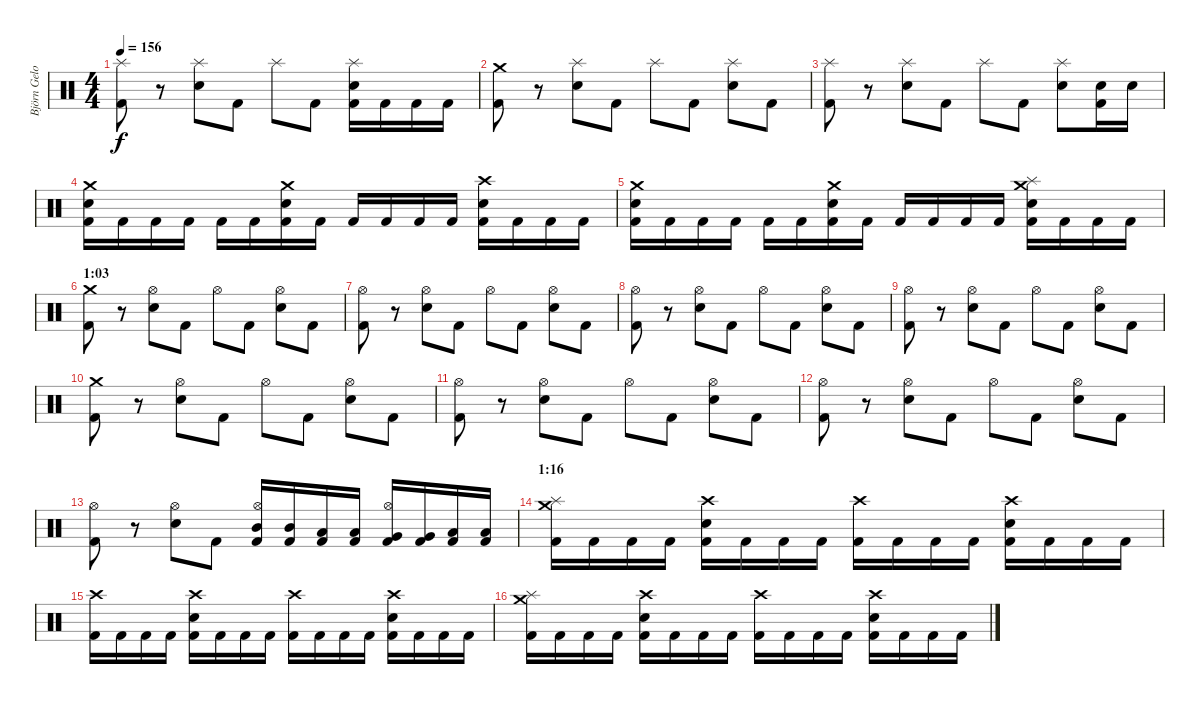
\track ("Björn Gelotte" "Björn Gelo") {instrument percussion}
\staff {score}
\articulation defaults
\ts (4 4)
\tempo 156
\clef neutral
\ks c
("Splash (hit)" "Kick (hit) 2").8{dy f} r.8 ("Splash (hit)" "Electric Snare (hit)").8 "Kick (hit) 2".8 "Splash (hit)".8 "Kick (hit) 2".8 ("Splash (hit)" "Electric Snare (hit)" "Kick (hit) 2").16 "Kick (hit) 2".16 "Kick (hit) 2".16 "Kick (hit) 2".16 |
("Crash medium (hit)" "Kick (hit) 2").8 r.8 ("Splash (hit)" "Electric Snare (hit)").8 "Kick (hit) 2".8 "Splash (hit)".8 "Kick (hit) 2".8 ("Splash (hit)" "Electric Snare (hit)").8 "Kick (hit) 2".8 |
("Splash (hit)" "Kick (hit) 2").8 r.8 ("Splash (hit)" "Electric Snare (hit)").8 "Kick (hit) 2".8 "Splash (hit)".8 "Kick (hit) 2".8 ("Splash (hit)" "Electric Snare (hit)").8 ("Electric Snare (hit)" "Kick (hit) 2").16 "Electric Snare (hit)".16 |
("Crash medium (hit)" "Electric Snare (hit)" "Kick (hit) 2").16 "Kick (hit) 2".16 "Kick (hit) 2".16 "Kick (hit) 2".16 "Kick (hit) 2".16 "Kick (hit) 2".16 ("Crash medium (hit)" "Electric Snare (hit)" "Kick (hit) 2").16 "Kick (hit) 2".16 "Kick (hit) 2".16 "Kick (hit) 2".16 "Kick (hit) 2".16 "Kick (hit) 2".16 ("Crash high (hit)" "Electric Snare (hit)" "Kick (hit) 2").16 "Kick (hit) 2".16 "Kick (hit) 2".16 "Kick (hit) 2".16 |
("Crash medium (hit)" "Electric Snare (hit)" "Kick (hit) 2").16 "Kick (hit) 2".16 "Kick (hit) 2".16 "Kick (hit) 2".16 "Kick (hit) 2".16 "Kick (hit) 2".16 ("Crash medium (hit)" "Electric Snare (hit)" "Kick (hit) 2").16 "Kick (hit) 2".16 "Kick (hit) 2".16 "Kick (hit) 2".16 "Kick (hit) 2".16 "Kick (hit) 2".16 ("Crash medium (hit)" "Splash (hit)" "Electric Snare (hit)" "Kick (hit) 2").16 "Kick (hit) 2".16 "Kick (hit) 2".16 "Kick (hit) 2".16 |
\section ("" "1:03")
("Crash medium (hit)" "Kick (hit) 2").8 r.8 ("Hi-Hat (open)" "Electric Snare (hit)").8 "Kick (hit) 2".8 "Hi-Hat (open)".8 "Kick (hit) 2".8 ("Hi-Hat (open)" "Electric Snare (hit)").8 "Kick (hit) 2".8 |
("Hi-Hat (open)" "Kick (hit) 2").8 r.8 ("Hi-Hat (open)" "Electric Snare (hit)").8 "Kick (hit) 2".8 "Hi-Hat (open)".8 "Kick (hit) 2".8 ("Hi-Hat (open)" "Electric Snare (hit)").8 "Kick (hit) 2".8 |
("Hi-Hat (open)" "Kick (hit) 2").8 r.8 ("Hi-Hat (open)" "Electric Snare (hit)").8 "Kick (hit) 2".8 "Hi-Hat (open)".8 "Kick (hit) 2".8 ("Hi-Hat (open)" "Electric Snare (hit)").8 "Kick (hit) 2".8 |
("Hi-Hat (open)" "Kick (hit) 2").8 r.8 ("Hi-Hat (open)" "Electric Snare (hit)").8 "Kick (hit) 2".8 "Hi-Hat (open)".8 "Kick (hit) 2".8 ("Hi-Hat (open)" "Electric Snare (hit)").8 "Kick (hit) 2".8 |
("Crash medium (hit)" "Kick (hit) 2").8 r.8 ("Hi-Hat (open)" "Electric Snare (hit)").8 "Kick (hit) 2".8 "Hi-Hat (open)".8 "Kick (hit) 2".8 ("Hi-Hat (open)" "Electric Snare (hit)").8 "Kick (hit) 2".8 |
("Hi-Hat (open)" "Kick (hit) 2").8 r.8 ("Hi-Hat (open)" "Electric Snare (hit)").8 "Kick (hit) 2".8 "Hi-Hat (open)".8 "Kick (hit) 2".8 ("Hi-Hat (open)" "Electric Snare (hit)").8 "Kick (hit) 2".8 |
("Hi-Hat (open)" "Kick (hit) 2").8 r.8 ("Hi-Hat (open)" "Electric Snare (hit)").8 "Kick (hit) 2".8 "Hi-Hat (open)".8 "Kick (hit) 2".8 ("Hi-Hat (open)" "Electric Snare (hit)").8 "Kick (hit) 2".8 |
("Hi-Hat (open)" "Kick (hit) 2").8 r.8 ("Hi-Hat (open)" "Electric Snare (hit)").8 "Kick (hit) 2".8 ("Hi-Hat (open)" "Mid Tom (hit)" "Kick (hit) 2").16 ("Mid Tom (hit)" "Kick (hit) 2").16 ("Low Tom (hit)" "Kick (hit) 2").16 ("Low Tom (hit)" "Kick (hit) 2").16 ("Hi-Hat (open)" "Very Low Tom (hit)" "Kick (hit) 2").16 ("Very Low Tom (hit)" "Kick (hit) 2").16 ("Low Floor Tom (hit)" "Kick (hit) 2").16 ("Low Floor Tom (hit)" "Kick (hit) 2").16 |
\section ("" "1:16")
("Crash medium (hit)" "Splash (hit)" "Kick (hit) 2").16 "Kick (hit) 2".16 "Kick (hit) 2".16 "Kick (hit) 2".16 ("Crash high (hit)" "Electric Snare (hit)" "Kick (hit) 2").16 "Kick (hit) 2".16 "Kick (hit) 2".16 "Kick (hit) 2".16 ("Crash high (hit)" "Kick (hit) 2").16 "Kick (hit) 2".16 "Kick (hit) 2".16 "Kick (hit) 2".16 ("Crash high (hit)" "Electric Snare (hit)" "Kick (hit) 2").16 "Kick (hit) 2".16 "Kick (hit) 2".16 "Kick (hit) 2".16 |
("Crash high (hit)" "Kick (hit) 2").16 "Kick (hit) 2".16 "Kick (hit) 2".16 "Kick (hit) 2".16 ("Crash high (hit)" "Electric Snare (hit)" "Kick (hit) 2").16 "Kick (hit) 2".16 "Kick (hit) 2".16 "Kick (hit) 2".16 ("Crash high (hit)" "Kick (hit) 2").16 "Kick (hit) 2".16 "Kick (hit) 2".16 "Kick (hit) 2".16 ("Crash high (hit)" "Electric Snare (hit)" "Kick (hit) 2").16 "Kick (hit) 2".16 "Kick (hit) 2".16 "Kick (hit) 2".16 |
("Crash medium (hit)" "Splash (hit)" "Kick (hit) 2").16 "Kick (hit) 2".16 "Kick (hit) 2".16 "Kick (hit) 2".16 ("Crash high (hit)" "Electric Snare (hit)" "Kick (hit) 2").16 "Kick (hit) 2".16 "Kick (hit) 2".16 "Kick (hit) 2".16 ("Crash high (hit)" "Kick (hit) 2").16 "Kick (hit) 2".16 "Kick (hit) 2".16 "Kick (hit) 2".16 ("Crash high (hit)" "Electric Snare (hit)" "Kick (hit) 2").16 "Kick (hit) 2".16 "Kick (hit) 2".16 "Kick (hit) 2".16
